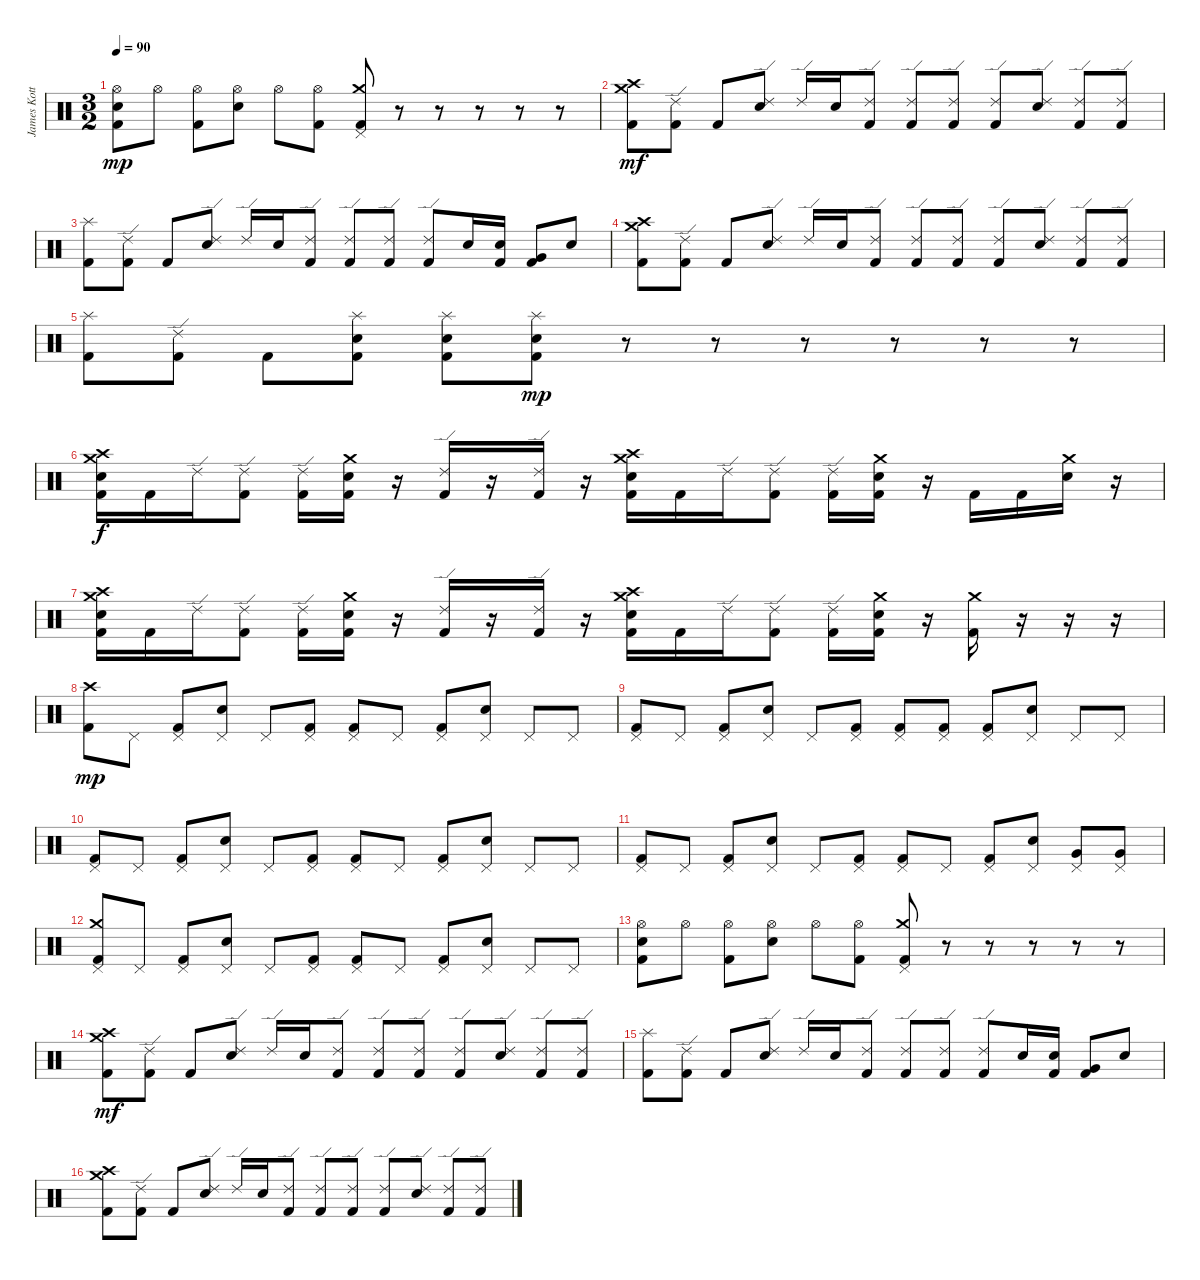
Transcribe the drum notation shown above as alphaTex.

\track ("James Kottak" "James Kott") {instrument percussion}
\staff {score}
\articulation defaults
\ts (3 2)
\tempo 90
\clef neutral
\ks c
("Hi-Hat (open)" "Electric Snare (hit)" "Kick (hit) 2").8{dy mp} "Hi-Hat (open)".8 ("Hi-Hat (open)" "Kick (hit) 2").8 ("Hi-Hat (open)" "Electric Snare (hit)").8 "Hi-Hat (open)".8 ("Hi-Hat (open)" "Kick (hit) 2").8 ("Crash medium (hit)" "Pedal Hi-Hat (hit)" "Kick (hit) 2").8 r.8 r.8 r.8 r.8 r.8 |
("Crash medium (hit)" "Crash high (hit)" "Kick (hit) 2").8{dy mf} ("Ride (edge) 2" "Kick (hit) 2").8 "Kick (hit) 2".8 ("Ride (edge) 2" "Electric Snare (hit)").8 "Ride (edge) 2".16 "Electric Snare (hit)".16 ("Ride (edge) 2" "Kick (hit) 2").8 ("Ride (edge) 2" "Kick (hit) 2").8 ("Ride (edge) 2" "Kick (hit) 2").8 ("Ride (edge) 2" "Kick (hit) 2").8 ("Ride (edge) 2" "Electric Snare (hit)").8 ("Ride (edge) 2" "Kick (hit) 2").8 ("Ride (edge) 2" "Kick (hit) 2").8 |
("Splash (hit)" "Kick (hit) 2").8 ("Ride (edge) 2" "Kick (hit) 2").8 "Kick (hit) 2".8 ("Ride (edge) 2" "Electric Snare (hit)").8 "Ride (edge) 2".16 "Electric Snare (hit)".16 ("Ride (edge) 2" "Kick (hit) 2").8 ("Ride (edge) 2" "Kick (hit) 2").8 ("Ride (edge) 2" "Kick (hit) 2").8 ("Ride (edge) 2" "Kick (hit) 2").8 "Electric Snare (hit)".16 ("Electric Snare (hit)" "Kick (hit) 2").16 ("Very Low Tom (hit)" "Kick (hit) 2").8 "Electric Snare (hit)".8 |
("Crash medium (hit)" "Crash high (hit)" "Kick (hit) 2").8 ("Ride (edge) 2" "Kick (hit) 2").8 "Kick (hit) 2".8 ("Ride (edge) 2" "Electric Snare (hit)").8 "Ride (edge) 2".16 "Electric Snare (hit)".16 ("Ride (edge) 2" "Kick (hit) 2").8 ("Ride (edge) 2" "Kick (hit) 2").8 ("Ride (edge) 2" "Kick (hit) 2").8 ("Ride (edge) 2" "Kick (hit) 2").8 ("Ride (edge) 2" "Electric Snare (hit)").8 ("Ride (edge) 2" "Kick (hit) 2").8 ("Ride (edge) 2" "Kick (hit) 2").8 |
("Splash (hit)" "Kick (hit) 2").8 ("Ride (edge) 2" "Kick (hit) 2").8 "Kick (hit) 2".8 ("Splash (hit)" "Electric Snare (hit)" "Kick (hit) 2").8 ("Splash (hit)" "Electric Snare (hit)" "Kick (hit) 2").8 ("Splash (hit)" "Electric Snare (hit)" "Kick (hit) 2").8{dy mp} r.8 r.8 r.8 r.8 r.8 r.8 |
("Crash medium (hit)" "Crash high (hit)" "Electric Snare (hit)" "Kick (hit) 2").16{dy f} "Kick (hit) 2".16 "Ride (edge) 2".16 ("Ride (edge) 2" "Kick (hit) 2").8 ("Ride (edge) 2" "Kick (hit) 2").16 ("Crash medium (hit)" "Electric Snare (hit)" "Kick (hit) 2").16 r.16 ("Ride (edge) 2" "Kick (hit) 2").16 r.16 ("Ride (edge) 2" "Kick (hit) 2").16 r.16 ("Crash high (hit)" "Crash medium (hit)" "Electric Snare (hit)" "Kick (hit) 2").16 "Kick (hit) 2".16 "Ride (edge) 2".16 ("Ride (edge) 2" "Kick (hit) 2").8 ("Ride (edge) 2" "Kick (hit) 2").16 ("Crash medium (hit)" "Electric Snare (hit)" "Kick (hit) 2").16 r.16 "Kick (hit) 2".16 "Kick (hit) 2".16 ("Crash medium (hit)" "Electric Snare (hit)").16 r.16 |
("Crash medium (hit)" "Crash high (hit)" "Electric Snare (hit)" "Kick (hit) 2").16 "Kick (hit) 2".16 "Ride (edge) 2".16 ("Ride (edge) 2" "Kick (hit) 2").8 ("Ride (edge) 2" "Kick (hit) 2").16 ("Crash medium (hit)" "Electric Snare (hit)" "Kick (hit) 2").16 r.16 ("Ride (edge) 2" "Kick (hit) 2").16 r.16 ("Ride (edge) 2" "Kick (hit) 2").16 r.16 ("Crash high (hit)" "Crash medium (hit)" "Electric Snare (hit)" "Kick (hit) 2").16 "Kick (hit) 2".16 "Ride (edge) 2".16 ("Ride (edge) 2" "Kick (hit) 2").8 ("Ride (edge) 2" "Kick (hit) 2").16 ("Crash medium (hit)" "Electric Snare (hit)" "Kick (hit) 2").16 r.16 ("Crash medium (hit)" "Kick (hit) 2").16 r.16 r.16 r.16 |
("Crash high (hit)" "Kick (hit) 2").8{dy mp} "Pedal Hi-Hat (hit)".8 ("Pedal Hi-Hat (hit)" "Kick (hit) 2").8 ("Pedal Hi-Hat (hit)" "Electric Snare (hit)").8 "Pedal Hi-Hat (hit)".8 ("Pedal Hi-Hat (hit)" "Kick (hit) 2").8 ("Pedal Hi-Hat (hit)" "Kick (hit) 2").8 "Pedal Hi-Hat (hit)".8 ("Pedal Hi-Hat (hit)" "Kick (hit) 2").8 ("Pedal Hi-Hat (hit)" "Electric Snare (hit)").8 "Pedal Hi-Hat (hit)".8 "Pedal Hi-Hat (hit)".8 |
("Pedal Hi-Hat (hit)" "Kick (hit) 2").8 "Pedal Hi-Hat (hit)".8 ("Pedal Hi-Hat (hit)" "Kick (hit) 2").8 ("Pedal Hi-Hat (hit)" "Electric Snare (hit)").8 "Pedal Hi-Hat (hit)".8 ("Pedal Hi-Hat (hit)" "Kick (hit) 2").8 ("Pedal Hi-Hat (hit)" "Kick (hit) 2").8 ("Pedal Hi-Hat (hit)" "Kick (hit) 2").8 ("Pedal Hi-Hat (hit)" "Kick (hit) 2").8 ("Pedal Hi-Hat (hit)" "Electric Snare (hit)").8 "Pedal Hi-Hat (hit)".8 "Pedal Hi-Hat (hit)".8 |
("Pedal Hi-Hat (hit)" "Kick (hit) 2").8 "Pedal Hi-Hat (hit)".8 ("Pedal Hi-Hat (hit)" "Kick (hit) 2").8 ("Pedal Hi-Hat (hit)" "Electric Snare (hit)").8 "Pedal Hi-Hat (hit)".8 ("Pedal Hi-Hat (hit)" "Kick (hit) 2").8 ("Pedal Hi-Hat (hit)" "Kick (hit) 2").8 "Pedal Hi-Hat (hit)".8 ("Pedal Hi-Hat (hit)" "Kick (hit) 2").8 ("Pedal Hi-Hat (hit)" "Electric Snare (hit)").8 "Pedal Hi-Hat (hit)".8 "Pedal Hi-Hat (hit)".8 |
("Pedal Hi-Hat (hit)" "Kick (hit) 2").8 "Pedal Hi-Hat (hit)".8 ("Pedal Hi-Hat (hit)" "Kick (hit) 2").8 ("Pedal Hi-Hat (hit)" "Electric Snare (hit)").8 "Pedal Hi-Hat (hit)".8 ("Pedal Hi-Hat (hit)" "Kick (hit) 2").8 ("Pedal Hi-Hat (hit)" "Kick (hit) 2").8 "Pedal Hi-Hat (hit)".8 ("Pedal Hi-Hat (hit)" "Kick (hit) 2").8 ("Pedal Hi-Hat (hit)" "Electric Snare (hit)").8 ("Pedal Hi-Hat (hit)" "Very Low Tom (hit)").8 ("Pedal Hi-Hat (hit)" "Very Low Tom (hit)").8 |
("Crash medium (hit)" "Pedal Hi-Hat (hit)" "Kick (hit) 2").8 "Pedal Hi-Hat (hit)".8 ("Pedal Hi-Hat (hit)" "Kick (hit) 2").8 ("Pedal Hi-Hat (hit)" "Electric Snare (hit)").8 "Pedal Hi-Hat (hit)".8 ("Pedal Hi-Hat (hit)" "Kick (hit) 2").8 ("Pedal Hi-Hat (hit)" "Kick (hit) 2").8 "Pedal Hi-Hat (hit)".8 ("Pedal Hi-Hat (hit)" "Kick (hit) 2").8 ("Pedal Hi-Hat (hit)" "Electric Snare (hit)").8 "Pedal Hi-Hat (hit)".8 "Pedal Hi-Hat (hit)".8 |
("Hi-Hat (open)" "Electric Snare (hit)" "Kick (hit) 2").8 "Hi-Hat (open)".8 ("Hi-Hat (open)" "Kick (hit) 2").8 ("Hi-Hat (open)" "Electric Snare (hit)").8 "Hi-Hat (open)".8 ("Hi-Hat (open)" "Kick (hit) 2").8 ("Crash medium (hit)" "Pedal Hi-Hat (hit)" "Kick (hit) 2").8 r.8 r.8 r.8 r.8 r.8 |
("Crash medium (hit)" "Crash high (hit)" "Kick (hit) 2").8{dy mf} ("Ride (edge) 2" "Kick (hit) 2").8 "Kick (hit) 2".8 ("Ride (edge) 2" "Electric Snare (hit)").8 "Ride (edge) 2".16 "Electric Snare (hit)".16 ("Ride (edge) 2" "Kick (hit) 2").8 ("Ride (edge) 2" "Kick (hit) 2").8 ("Ride (edge) 2" "Kick (hit) 2").8 ("Ride (edge) 2" "Kick (hit) 2").8 ("Ride (edge) 2" "Electric Snare (hit)").8 ("Ride (edge) 2" "Kick (hit) 2").8 ("Ride (edge) 2" "Kick (hit) 2").8 |
("Splash (hit)" "Kick (hit) 2").8 ("Ride (edge) 2" "Kick (hit) 2").8 "Kick (hit) 2".8 ("Ride (edge) 2" "Electric Snare (hit)").8 "Ride (edge) 2".16 "Electric Snare (hit)".16 ("Ride (edge) 2" "Kick (hit) 2").8 ("Ride (edge) 2" "Kick (hit) 2").8 ("Ride (edge) 2" "Kick (hit) 2").8 ("Ride (edge) 2" "Kick (hit) 2").8 "Electric Snare (hit)".16 ("Electric Snare (hit)" "Kick (hit) 2").16 ("Very Low Tom (hit)" "Kick (hit) 2").8 "Electric Snare (hit)".8 |
("Crash medium (hit)" "Crash high (hit)" "Kick (hit) 2").8 ("Ride (edge) 2" "Kick (hit) 2").8 "Kick (hit) 2".8 ("Ride (edge) 2" "Electric Snare (hit)").8 "Ride (edge) 2".16 "Electric Snare (hit)".16 ("Ride (edge) 2" "Kick (hit) 2").8 ("Ride (edge) 2" "Kick (hit) 2").8 ("Ride (edge) 2" "Kick (hit) 2").8 ("Ride (edge) 2" "Kick (hit) 2").8 ("Ride (edge) 2" "Electric Snare (hit)").8 ("Ride (edge) 2" "Kick (hit) 2").8 ("Ride (edge) 2" "Kick (hit) 2").8
